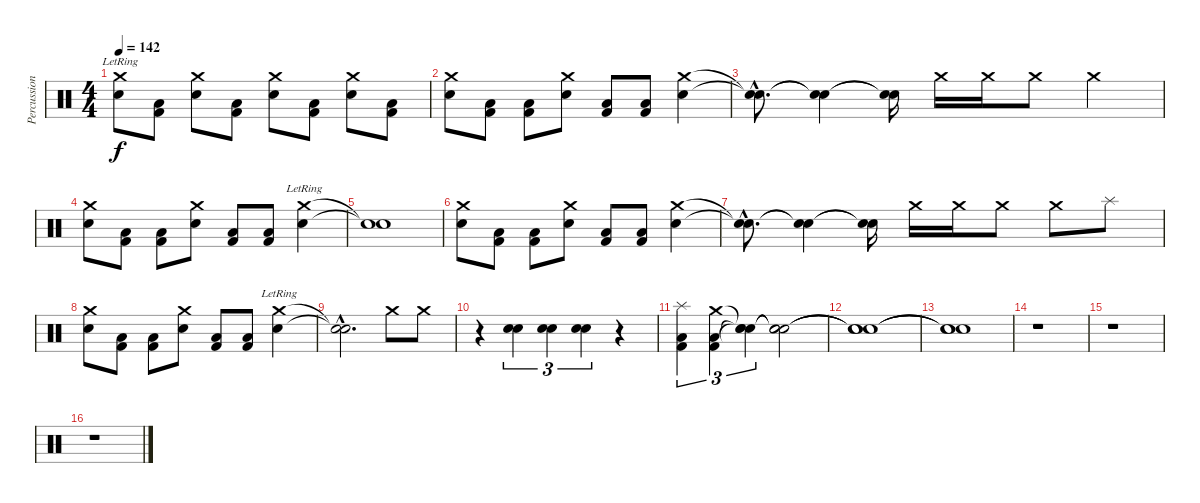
\track ("Percussions" "Percussion") {instrument percussion}
\staff {score}
\articulation defaults
\ts (4 4)
\tempo 142
\clef neutral
\ks c
("Electric Snare (hit)" "Crash medium (hit)"{lr}).8{dy f} ("Kick (hit) 2" "Low Floor Tom (hit)").8 ("Electric Snare (hit)" "Crash medium (hit)").8 ("Kick (hit) 2" "Low Floor Tom (hit)").8 ("Electric Snare (hit)" "Crash medium (hit)").8 ("Kick (hit) 2" "Low Floor Tom (hit)").8 ("Electric Snare (hit)" "Crash medium (hit)").8 ("Kick (hit) 2" "Low Floor Tom (hit)").8 |
("Electric Snare (hit)" "Crash medium (hit)").8 ("Kick (hit) 2" "Low Floor Tom (hit)").8 ("Kick (hit) 2" "Low Floor Tom (hit)").8 ("Electric Snare (hit)" "Crash medium (hit)").8 ("Kick (hit) 2" "Low Floor Tom (hit)").8 ("Kick (hit) 2" "Low Floor Tom (hit)").8 ("Electric Snare (hit)" "Crash medium (hit)").4 |
("Snare (hit)"{hac t} "Snare (hit)"{hac t}).8{d} ("Snare (hit)"{t} "Snare (hit)"{t}).4 ("Snare (hit)"{t} "Snare (hit)"{t}).16{volume 10} "Crash medium (hit)".16{volume 16} "Crash medium (hit)".16 "Crash medium (hit)".8 "Crash medium (hit)".4 |
("Electric Snare (hit)" "Crash medium (hit)").8 ("Kick (hit) 2" "Low Floor Tom (hit)").8 ("Kick (hit) 2" "Low Floor Tom (hit)").8 ("Electric Snare (hit)" "Crash medium (hit)").8 ("Kick (hit) 2" "Low Floor Tom (hit)").8 ("Kick (hit) 2" "Low Floor Tom (hit)").8 ("Electric Snare (hit)" "Crash medium (hit)"{lr}).4 |
("Snare (hit)"{t} "Snare (hit)"{t}).1 |
("Electric Snare (hit)" "Crash medium (hit)").8 ("Kick (hit) 2" "Low Floor Tom (hit)").8 ("Kick (hit) 2" "Low Floor Tom (hit)").8 ("Electric Snare (hit)" "Crash medium (hit)").8 ("Kick (hit) 2" "Low Floor Tom (hit)").8 ("Kick (hit) 2" "Low Floor Tom (hit)").8 ("Electric Snare (hit)" "Crash medium (hit)").4 |
("Snare (hit)"{hac t} "Snare (hit)"{hac t}).8{d} ("Snare (hit)"{t} "Snare (hit)"{t}).4 ("Snare (hit)"{t} "Snare (hit)"{t}).16{volume 10} "Crash medium (hit)".16{volume 16} "Crash medium (hit)".16 "Crash medium (hit)".8 "Crash medium (hit)".8 "Splash (hit)".8 |
("Electric Snare (hit)" "Crash medium (hit)").8 ("Kick (hit) 2" "Low Floor Tom (hit)").8 ("Kick (hit) 2" "Low Floor Tom (hit)").8 ("Electric Snare (hit)" "Crash medium (hit)").8 ("Kick (hit) 2" "Low Floor Tom (hit)").8 ("Kick (hit) 2" "Low Floor Tom (hit)").8 ("Electric Snare (hit)" "Crash medium (hit)"{lr}).4 |
("Snare (hit)"{hac t} "Snare (hit)"{hac t}).2{d} "Crash medium (hit)".8 "Crash medium (hit)".8 |
r.4 ("Electric Snare (hit)" "Snare (hit) 2").4{tu (3 2)} ("Electric Snare (hit)" "Snare (hit) 2").4{tu (3 2)} ("Electric Snare (hit)" "Snare (hit) 2").4{tu (3 2)} r.4 |
("Kick (hit) 2" "Low Floor Tom (hit)" "Splash (hit)").4{tu (3 2)} ("Kick (hit) 2" "Low Floor Tom (hit)" "Crash medium (hit)").4{tu (3 2)} ("Snare (hit)"{t} "Snare (hit)"{t} "Snare (hit)"{t}).4{tu (3 2)} ("Snare (hit)"{t} "Snare (hit)"{t} "Snare (hit)"{t}).2 |
("Snare (hit)"{t} "Snare (hit)"{t} "Snare (hit)"{t}).1 |
("Snare (hit)"{t} "Snare (hit)"{t} "Snare (hit)"{t}).1 |
r.1 |
r.1 |
r.1
